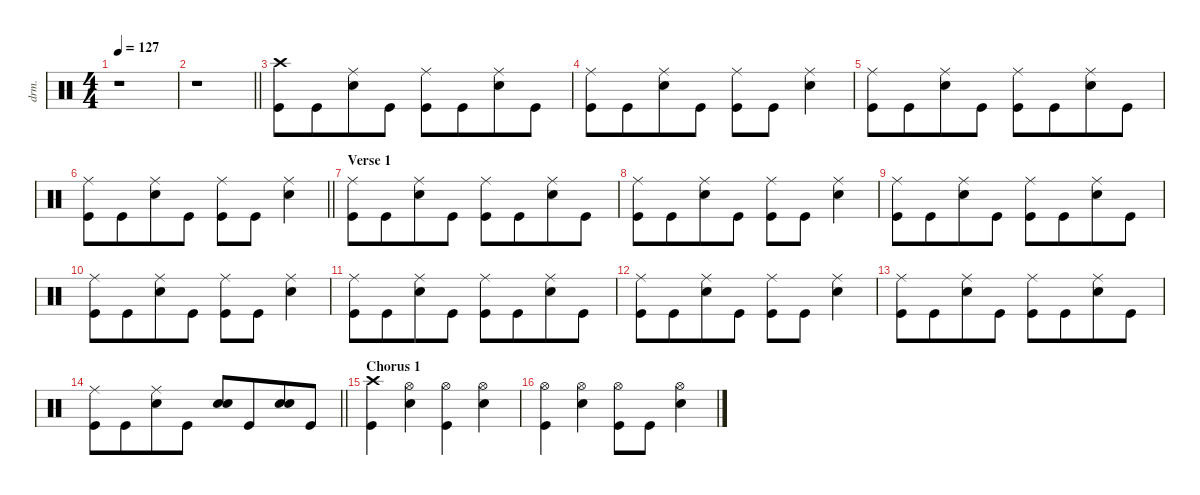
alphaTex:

\defaultSystemsLayout 4
\hideDynamics
\bracketExtendMode nobrackets
\otherSystemsTrackNameOrientation horizontal
\track ("Drums" "drm.") {defaultSystemsLayout 4 instrument percussion}
\staff {score}
\articulation defaults
\ts (4 4)
\beaming (8 4 4)
\tempo 127
\clef neutral
\ks c
r.1{dy f beam Down} |
\barLineRight lightlight
r.1{beam Down} |
("Crash high (hit)" "Kick (hit)").8{beam Down} "Kick (hit)".8{beam Down} ("Ride (middle)" "Snare (hit) 2").8{beam Down} "Kick (hit)".8{beam Down} ("Ride (middle)" "Kick (hit)").8{beam Down} "Kick (hit)".8{beam Down} ("Ride (middle)" "Snare (hit) 2").8{beam Down} "Kick (hit)".8{beam Down} |
("Ride (middle)" "Kick (hit)").8{beam Down} "Kick (hit)".8{beam Down} ("Ride (middle)" "Snare (hit) 2").8{beam Down} "Kick (hit)".8{beam Down} ("Ride (middle)" "Kick (hit)").8{beam Down} "Kick (hit)".8{beam Down} ("Ride (middle)" "Snare (hit) 2").4{beam Down} |
("Ride (middle)" "Kick (hit)").8{beam Down} "Kick (hit)".8{beam Down} ("Ride (middle)" "Snare (hit) 2").8{beam Down} "Kick (hit)".8{beam Down} ("Ride (middle)" "Kick (hit)").8{beam Down} "Kick (hit)".8{beam Down} ("Ride (middle)" "Snare (hit) 2").8{beam Down} "Kick (hit)".8{beam Down} |
\barLineRight lightlight
("Ride (middle)" "Kick (hit)").8{beam Down} "Kick (hit)".8{beam Down} ("Ride (middle)" "Snare (hit) 2").8{beam Down} "Kick (hit)".8{beam Down} ("Ride (middle)" "Kick (hit)").8{beam Down} "Kick (hit)".8{beam Down} ("Ride (middle)" "Snare (hit) 2").4{beam Down} |
\section ("" "Verse 1")
("Ride (middle)" "Kick (hit)").8{beam Down} "Kick (hit)".8{beam Down} ("Ride (middle)" "Snare (hit) 2").8{beam Down} "Kick (hit)".8{beam Down} ("Ride (middle)" "Kick (hit)").8{beam Down} "Kick (hit)".8{beam Down} ("Ride (middle)" "Snare (hit) 2").8{beam Down} "Kick (hit)".8{beam Down} |
("Ride (middle)" "Kick (hit)").8{beam Down} "Kick (hit)".8{beam Down} ("Ride (middle)" "Snare (hit) 2").8{beam Down} "Kick (hit)".8{beam Down} ("Ride (middle)" "Kick (hit)").8{beam Down} "Kick (hit)".8{beam Down} ("Ride (middle)" "Snare (hit) 2").4{beam Down} |
("Ride (middle)" "Kick (hit)").8{beam Down} "Kick (hit)".8{beam Down} ("Ride (middle)" "Snare (hit) 2").8{beam Down} "Kick (hit)".8{beam Down} ("Ride (middle)" "Kick (hit)").8{beam Down} "Kick (hit)".8{beam Down} ("Ride (middle)" "Snare (hit) 2").8{beam Down} "Kick (hit)".8{beam Down} |
("Ride (middle)" "Kick (hit)").8{beam Down} "Kick (hit)".8{beam Down} ("Ride (middle)" "Snare (hit) 2").8{beam Down} "Kick (hit)".8{beam Down} ("Ride (middle)" "Kick (hit)").8{beam Down} "Kick (hit)".8{beam Down} ("Ride (middle)" "Snare (hit) 2").4{beam Down} |
("Ride (middle)" "Kick (hit)").8{beam Down} "Kick (hit)".8{beam Down} ("Ride (middle)" "Snare (hit) 2").8{beam Down} "Kick (hit)".8{beam Down} ("Ride (middle)" "Kick (hit)").8{beam Down} "Kick (hit)".8{beam Down} ("Ride (middle)" "Snare (hit) 2").8{beam Down} "Kick (hit)".8{beam Down} |
("Ride (middle)" "Kick (hit)").8{beam Down} "Kick (hit)".8{beam Down} ("Ride (middle)" "Snare (hit) 2").8{beam Down} "Kick (hit)".8{beam Down} ("Ride (middle)" "Kick (hit)").8{beam Down} "Kick (hit)".8{beam Down} ("Ride (middle)" "Snare (hit) 2").4{beam Down} |
("Ride (middle)" "Kick (hit)").8{beam Down} "Kick (hit)".8{beam Down} ("Ride (middle)" "Snare (hit) 2").8{beam Down} "Kick (hit)".8{beam Down} ("Ride (middle)" "Kick (hit)").8{beam Down} "Kick (hit)".8{beam Down} ("Ride (middle)" "Snare (hit) 2").8{beam Down} "Kick (hit)".8{beam Down} |
\barLineRight lightlight
("Ride (middle)" "Kick (hit)").8{beam Down} "Kick (hit)".8{beam Down} ("Ride (middle)" "Snare (hit) 2").8{beam Down} "Kick (hit)".8{beam Down} ("Snare (hit) 2" "Snare (hit) 2").8{beam Up} "Kick (hit)".8{beam Up} ("Snare (hit) 2" "Snare (hit) 2").8{beam Up} "Kick (hit)".8{beam Up} |
\section ("" "Chorus 1")
("Crash high (hit)" "Kick (hit)").4{beam Down} ("Hi-Hat (open)" "Snare (hit) 2").4{beam Down} ("Hi-Hat (open)" "Kick (hit)").4{beam Down} ("Hi-Hat (open)" "Snare (hit) 2").4{beam Down} |
("Hi-Hat (open)" "Kick (hit)").4{beam Down} ("Hi-Hat (open)" "Snare (hit) 2").4{beam Down} ("Hi-Hat (open)" "Kick (hit)").8{beam Down} "Kick (hit)".8{beam Down} ("Hi-Hat (open)" "Snare (hit) 2").4{beam Down}
